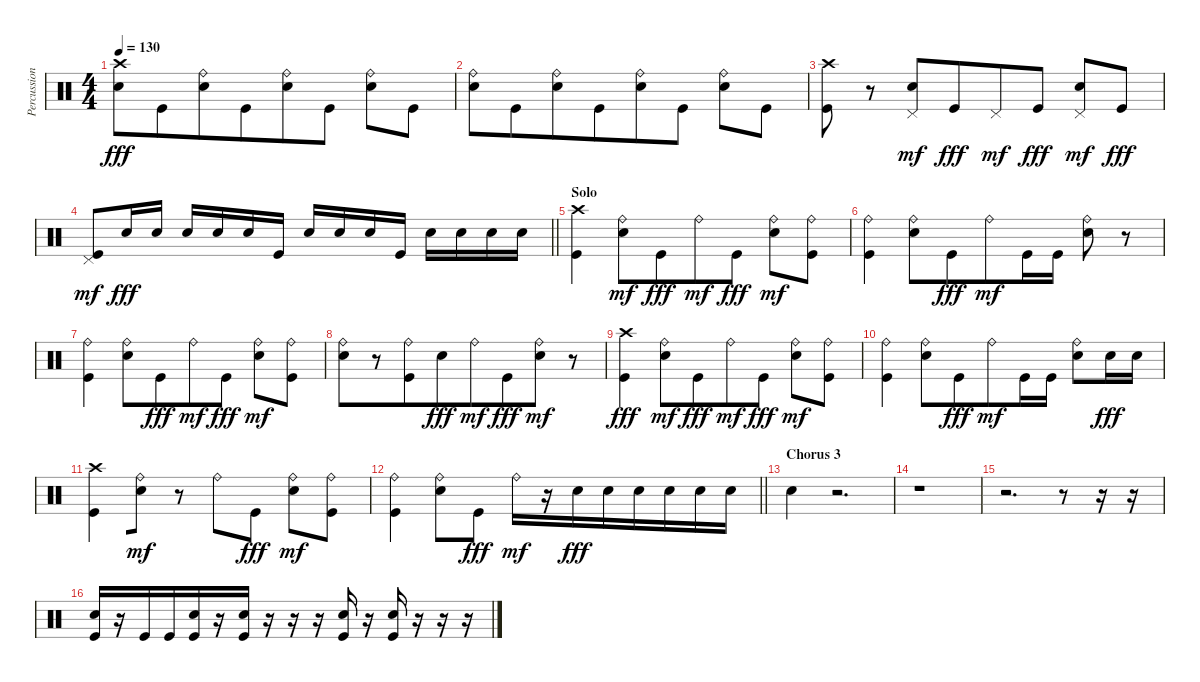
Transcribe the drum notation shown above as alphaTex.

\track ("Percussion" "Percussion") {instrument percussion bank 255}
\staff {score}
\articulation defaults
\ts (4 4)
\tempo 130
\clef neutral
\ks c
("Snare (hit) 2" "Crash high (hit)").8{dy fff} "Kick (hit)".8{beam merge} ("Snare (hit) 2" "Ride (bell)").8 "Kick (hit)".8{beam merge} ("Snare (hit) 2" "Ride (bell)").8{beam merge} "Kick (hit)".8 ("Snare (hit) 2" "Ride (bell)").8{beam merge} "Kick (hit)".8 |
("Snare (hit) 2" "Ride (bell)").8 "Kick (hit)".8{beam merge} ("Snare (hit) 2" "Ride (bell)").8 "Kick (hit)".8{beam merge} ("Snare (hit) 2" "Ride (bell)").8{beam merge} "Kick (hit)".8 ("Snare (hit) 2" "Ride (bell)").8{beam merge} "Kick (hit)".8 |
("Kick (hit)" "Crash high (hit)").8 r.8{beam merge} ("Snare (hit) 2" "Pedal Hi-Hat (hit)").8{dy mf} "Kick (hit)".8{dy fff beam merge} "Pedal Hi-Hat (hit)".8{dy mf beam merge} "Kick (hit)".8{dy fff} ("Snare (hit) 2" "Pedal Hi-Hat (hit)").8{dy mf beam merge} "Kick (hit)".8{dy fff} |
\barLineRight lightlight
("Kick (hit)" "Pedal Hi-Hat (hit)").8{dy mf} "Snare (hit) 2".16{dy fff} "Snare (hit) 2".16 "Snare (hit) 2".16 "Snare (hit) 2".16 "Snare (hit) 2".16 "Kick (hit)".16 "Snare (hit) 2".16 "Snare (hit) 2".16 "Snare (hit) 2".16{beam merge} "Kick (hit)".16 "Snare (hit) 2".16 "Snare (hit) 2".16 "Snare (hit) 2".16 "Snare (hit) 2".16 |
\section ("" "Solo")
("Kick (hit)" "Crash high (hit)").4{beam merge} ("Snare (hit) 2" "Ride (bell)").8{dy mf} "Kick (hit)".8{dy fff beam merge} "Ride (bell)".8{dy mf beam merge} "Kick (hit)".8{dy fff} ("Snare (hit) 2" "Ride (bell)").8{dy mf} ("Kick (hit)" "Ride (bell)").8 |
("Kick (hit)" "Ride (bell)").4{beam merge} ("Snare (hit) 2" "Ride (bell)").8 "Kick (hit)".8{dy fff beam merge} "Ride (bell)".8{dy mf beam merge} "Kick (hit)".16{beam merge} "Kick (hit)".16 ("Snare (hit) 2" "Ride (bell)").8 r.8 |
("Kick (hit)" "Ride (bell)").4{beam merge} ("Snare (hit) 2" "Ride (bell)").8 "Kick (hit)".8{dy fff beam merge} "Ride (bell)".8{dy mf beam merge} "Kick (hit)".8{dy fff} ("Snare (hit) 2" "Ride (bell)").8{dy mf} ("Kick (hit)" "Ride (bell)").8 |
("Snare (hit) 2" "Ride (bell)").8{beam merge} r.8 ("Kick (hit)" "Ride (bell)").8{beam merge} "Snare (hit) 2".8{dy fff beam merge} "Ride (bell)".8{dy mf} "Kick (hit)".8{dy fff beam merge} ("Snare (hit) 2" "Ride (bell)").8{dy mf beam merge} r.8 |
("Kick (hit)" "Crash high (hit)").4{dy fff beam merge} ("Snare (hit) 2" "Ride (bell)").8{dy mf} "Kick (hit)".8{dy fff beam merge} "Ride (bell)".8{dy mf beam merge} "Kick (hit)".8{dy fff} ("Snare (hit) 2" "Ride (bell)").8{dy mf} ("Kick (hit)" "Ride (bell)").8 |
("Kick (hit)" "Ride (bell)").4{beam merge} ("Snare (hit) 2" "Ride (bell)").8 "Kick (hit)".8{dy fff beam merge} "Ride (bell)".8{dy mf beam merge} "Kick (hit)".16{beam merge} "Kick (hit)".16 ("Snare (hit) 2" "Ride (bell)").8 "Snare (hit) 2".16{dy fff} "Snare (hit) 2".16 |
("Kick (hit)" "Crash high (hit)").4{beam merge} ("Snare (hit) 2" "Ride (bell)").8{dy mf} r.8{beam merge} "Ride (bell)".8{beam merge} "Kick (hit)".8{dy fff} ("Snare (hit) 2" "Ride (bell)").8{dy mf} ("Kick (hit)" "Ride (bell)").8 |
\barLineRight lightlight
("Kick (hit)" "Ride (bell)").4{beam merge} ("Snare (hit) 2" "Ride (bell)").8 "Kick (hit)".8{dy fff} "Ride (bell)".16{dy mf} r.16{beam merge} "Snare (hit) 2".16{dy fff beam merge} "Snare (hit) 2".16{beam merge} "Snare (hit) 2".16 "Snare (hit) 2".16 "Snare (hit) 2".16 "Snare (hit) 2".16 |
\section ("" "Chorus 3")
"Snare (hit) 2".4 r.2{d} |
r.1 |
r.2{d} r.8{beam merge} r.16 r.16 |
("Snare (hit) 2" "Kick (hit)").16 r.16 "Kick (hit)".16{beam merge} "Kick (hit)".16{beam merge} ("Snare (hit) 2" "Kick (hit)").16{beam merge} r.16 ("Snare (hit) 2" "Kick (hit)").16 r.16 r.16 r.16 ("Snare (hit) 2" "Kick (hit)").16 r.16 ("Snare (hit) 2" "Kick (hit)").16{beam merge} r.16{beam merge} r.16 r.16
